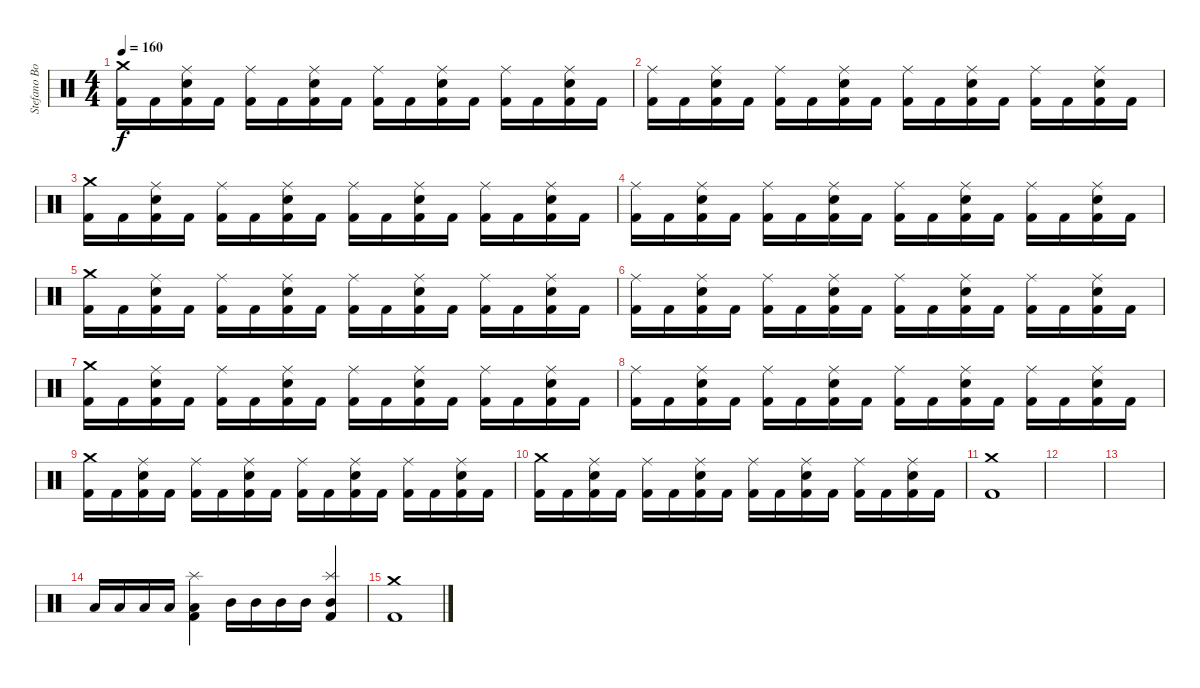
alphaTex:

\track ("Stefano Bonini" "Stefano Bo") {instrument percussion}
\staff {score}
\articulation defaults
\ts (4 4)
\tempo 160
\clef neutral
\ks c
("Crash medium (hit)" "Kick (hit) 2").16{dy f} "Kick (hit) 2".16 ("Ride (middle)" "Snare (hit) 2" "Kick (hit) 2").16 "Kick (hit) 2".16 ("Ride (middle)" "Kick (hit) 2").16 "Kick (hit) 2".16 ("Ride (middle)" "Snare (hit) 2" "Kick (hit) 2").16 "Kick (hit) 2".16 ("Ride (middle)" "Kick (hit) 2").16 "Kick (hit) 2".16 ("Ride (middle)" "Snare (hit) 2" "Kick (hit) 2").16 "Kick (hit) 2".16 ("Ride (middle)" "Kick (hit) 2").16 "Kick (hit) 2".16 ("Ride (middle)" "Snare (hit) 2" "Kick (hit) 2").16 "Kick (hit) 2".16 |
("Ride (middle)" "Kick (hit) 2").16 "Kick (hit) 2".16 ("Ride (middle)" "Snare (hit) 2" "Kick (hit) 2").16 "Kick (hit) 2".16 ("Ride (middle)" "Kick (hit) 2").16 "Kick (hit) 2".16 ("Ride (middle)" "Snare (hit) 2" "Kick (hit) 2").16 "Kick (hit) 2".16 ("Ride (middle)" "Kick (hit) 2").16 "Kick (hit) 2".16 ("Ride (middle)" "Snare (hit) 2" "Kick (hit) 2").16 "Kick (hit) 2".16 ("Ride (middle)" "Kick (hit) 2").16 "Kick (hit) 2".16 ("Ride (middle)" "Snare (hit) 2" "Kick (hit) 2").16 "Kick (hit) 2".16 |
("Crash medium (hit)" "Kick (hit) 2").16 "Kick (hit) 2".16 ("Ride (middle)" "Snare (hit) 2" "Kick (hit) 2").16 "Kick (hit) 2".16 ("Ride (middle)" "Kick (hit) 2").16 "Kick (hit) 2".16 ("Ride (middle)" "Snare (hit) 2" "Kick (hit) 2").16 "Kick (hit) 2".16 ("Ride (middle)" "Kick (hit) 2").16 "Kick (hit) 2".16 ("Ride (middle)" "Snare (hit) 2" "Kick (hit) 2").16 "Kick (hit) 2".16 ("Ride (middle)" "Kick (hit) 2").16 "Kick (hit) 2".16 ("Ride (middle)" "Snare (hit) 2" "Kick (hit) 2").16 "Kick (hit) 2".16 |
("Ride (middle)" "Kick (hit) 2").16 "Kick (hit) 2".16 ("Ride (middle)" "Snare (hit) 2" "Kick (hit) 2").16 "Kick (hit) 2".16 ("Ride (middle)" "Kick (hit) 2").16 "Kick (hit) 2".16 ("Ride (middle)" "Snare (hit) 2" "Kick (hit) 2").16 "Kick (hit) 2".16 ("Ride (middle)" "Kick (hit) 2").16 "Kick (hit) 2".16 ("Ride (middle)" "Snare (hit) 2" "Kick (hit) 2").16 "Kick (hit) 2".16 ("Ride (middle)" "Kick (hit) 2").16 "Kick (hit) 2".16 ("Ride (middle)" "Snare (hit) 2" "Kick (hit) 2").16 "Kick (hit) 2".16 |
("Crash medium (hit)" "Kick (hit) 2").16 "Kick (hit) 2".16 ("Ride (middle)" "Snare (hit) 2" "Kick (hit) 2").16 "Kick (hit) 2".16 ("Ride (middle)" "Kick (hit) 2").16 "Kick (hit) 2".16 ("Ride (middle)" "Snare (hit) 2" "Kick (hit) 2").16 "Kick (hit) 2".16 ("Ride (middle)" "Kick (hit) 2").16 "Kick (hit) 2".16 ("Ride (middle)" "Snare (hit) 2" "Kick (hit) 2").16 "Kick (hit) 2".16 ("Ride (middle)" "Kick (hit) 2").16 "Kick (hit) 2".16 ("Ride (middle)" "Snare (hit) 2" "Kick (hit) 2").16 "Kick (hit) 2".16 |
("Ride (middle)" "Kick (hit) 2").16 "Kick (hit) 2".16 ("Ride (middle)" "Snare (hit) 2" "Kick (hit) 2").16 "Kick (hit) 2".16 ("Ride (middle)" "Kick (hit) 2").16 "Kick (hit) 2".16 ("Ride (middle)" "Snare (hit) 2" "Kick (hit) 2").16 "Kick (hit) 2".16 ("Ride (middle)" "Kick (hit) 2").16 "Kick (hit) 2".16 ("Ride (middle)" "Snare (hit) 2" "Kick (hit) 2").16 "Kick (hit) 2".16 ("Ride (middle)" "Kick (hit) 2").16 "Kick (hit) 2".16 ("Ride (middle)" "Snare (hit) 2" "Kick (hit) 2").16 "Kick (hit) 2".16 |
("Crash medium (hit)" "Kick (hit) 2").16 "Kick (hit) 2".16 ("Ride (middle)" "Snare (hit) 2" "Kick (hit) 2").16 "Kick (hit) 2".16 ("Ride (middle)" "Kick (hit) 2").16 "Kick (hit) 2".16 ("Ride (middle)" "Snare (hit) 2" "Kick (hit) 2").16 "Kick (hit) 2".16 ("Ride (middle)" "Kick (hit) 2").16 "Kick (hit) 2".16 ("Ride (middle)" "Snare (hit) 2" "Kick (hit) 2").16 "Kick (hit) 2".16 ("Ride (middle)" "Kick (hit) 2").16 "Kick (hit) 2".16 ("Ride (middle)" "Snare (hit) 2" "Kick (hit) 2").16 "Kick (hit) 2".16 |
("Ride (middle)" "Kick (hit) 2").16 "Kick (hit) 2".16 ("Ride (middle)" "Snare (hit) 2" "Kick (hit) 2").16 "Kick (hit) 2".16 ("Ride (middle)" "Kick (hit) 2").16 "Kick (hit) 2".16 ("Ride (middle)" "Snare (hit) 2" "Kick (hit) 2").16 "Kick (hit) 2".16 ("Ride (middle)" "Kick (hit) 2").16 "Kick (hit) 2".16 ("Ride (middle)" "Snare (hit) 2" "Kick (hit) 2").16 "Kick (hit) 2".16 ("Ride (middle)" "Kick (hit) 2").16 "Kick (hit) 2".16 ("Ride (middle)" "Snare (hit) 2" "Kick (hit) 2").16 "Kick (hit) 2".16 |
("Crash medium (hit)" "Kick (hit) 2").16 "Kick (hit) 2".16 ("Ride (middle)" "Snare (hit) 2" "Kick (hit) 2").16 "Kick (hit) 2".16 ("Ride (middle)" "Kick (hit) 2").16 "Kick (hit) 2".16 ("Ride (middle)" "Snare (hit) 2" "Kick (hit) 2").16 "Kick (hit) 2".16 ("Ride (middle)" "Kick (hit) 2").16 "Kick (hit) 2".16 ("Ride (middle)" "Snare (hit) 2" "Kick (hit) 2").16 "Kick (hit) 2".16 ("Ride (middle)" "Kick (hit) 2").16 "Kick (hit) 2".16 ("Ride (middle)" "Snare (hit) 2" "Kick (hit) 2").16 "Kick (hit) 2".16 |
("Crash medium (hit)" "Kick (hit) 2").16 "Kick (hit) 2".16 ("Ride (middle)" "Snare (hit) 2" "Kick (hit) 2").16 "Kick (hit) 2".16 ("Ride (middle)" "Kick (hit) 2").16 "Kick (hit) 2".16 ("Ride (middle)" "Snare (hit) 2" "Kick (hit) 2").16 "Kick (hit) 2".16 ("Ride (middle)" "Kick (hit) 2").16 "Kick (hit) 2".16 ("Ride (middle)" "Snare (hit) 2" "Kick (hit) 2").16 "Kick (hit) 2".16 ("Ride (middle)" "Kick (hit) 2").16 "Kick (hit) 2".16 ("Ride (middle)" "Snare (hit) 2" "Kick (hit) 2").16 "Kick (hit) 2".16 |
("Crash medium (hit)" "Kick (hit) 2").1 |
|
|
"Low Tom (hit)".16 "Low Tom (hit)".16 "Low Tom (hit)".16 "Low Tom (hit)".16 ("Splash (hit)" "Low Tom (hit)" "Kick (hit) 2").4 "Mid Tom (hit)".16 "Mid Tom (hit)".16 "Mid Tom (hit)".16 "Mid Tom (hit)".16 ("Splash (hit)" "Mid Tom (hit)" "Kick (hit) 2").4 |
("Crash medium (hit)" "Kick (hit) 2").1
